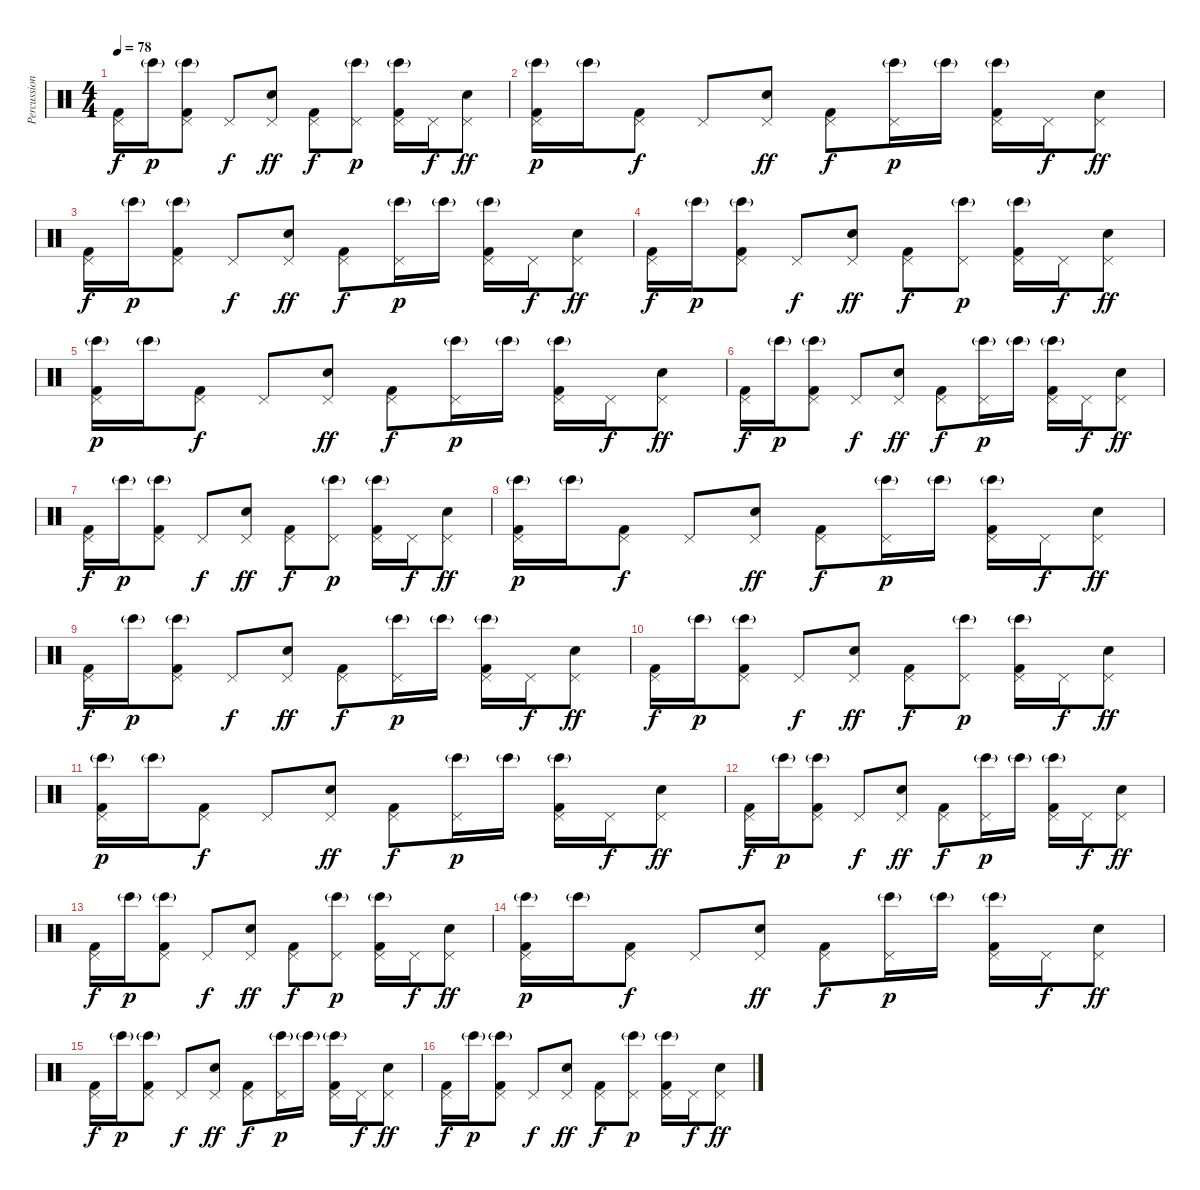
\track ("Percussions" "Percussion") {instrument percussion}
\staff {score}
\articulation defaults
\ts (4 4)
\tempo 78
\clef neutral
\ks c
("Pedal Hi-Hat (hit)" "Kick (hit) 2").16{dy f} "Bongo High (hit)"{g}.16{dy p} ("Pedal Hi-Hat (hit)" "Bongo High (hit)"{g} "Kick (hit) 2").8 "Pedal Hi-Hat (hit)".8{dy f} ("Pedal Hi-Hat (hit)" "Electric Snare (hit)").8{dy ff} ("Pedal Hi-Hat (hit)" "Kick (hit) 2").8{dy f} ("Pedal Hi-Hat (hit)" "Bongo High (hit)"{g}).8{dy p} ("Pedal Hi-Hat (hit)" "Bongo High (hit)"{g} "Kick (hit) 2").16 "Pedal Hi-Hat (hit)".16{dy f} ("Pedal Hi-Hat (hit)" "Electric Snare (hit)").8{dy ff} |
("Pedal Hi-Hat (hit)" "Bongo High (hit)"{g} "Kick (hit) 2").16{dy p} "Bongo High (hit)"{g}.16 ("Pedal Hi-Hat (hit)" "Kick (hit) 2").8{dy f} "Pedal Hi-Hat (hit)".8 ("Pedal Hi-Hat (hit)" "Electric Snare (hit)").8{dy ff} ("Pedal Hi-Hat (hit)" "Kick (hit) 2").8{dy f} ("Pedal Hi-Hat (hit)" "Bongo High (hit)"{g}).16{dy p} "Bongo High (hit)"{g}.16 ("Pedal Hi-Hat (hit)" "Bongo High (hit)"{g} "Kick (hit) 2").16 "Pedal Hi-Hat (hit)".16{dy f} ("Pedal Hi-Hat (hit)" "Electric Snare (hit)").8{dy ff} |
("Pedal Hi-Hat (hit)" "Kick (hit) 2").16{dy f} "Bongo High (hit)"{g}.16{dy p} ("Pedal Hi-Hat (hit)" "Bongo High (hit)"{g} "Kick (hit) 2").8 "Pedal Hi-Hat (hit)".8{dy f} ("Pedal Hi-Hat (hit)" "Electric Snare (hit)").8{dy ff} ("Pedal Hi-Hat (hit)" "Kick (hit) 2").8{dy f} ("Pedal Hi-Hat (hit)" "Bongo High (hit)"{g}).16{dy p} "Bongo High (hit)"{g}.16 ("Pedal Hi-Hat (hit)" "Bongo High (hit)"{g} "Kick (hit) 2").16 "Pedal Hi-Hat (hit)".16{dy f} ("Pedal Hi-Hat (hit)" "Electric Snare (hit)").8{dy ff} |
("Pedal Hi-Hat (hit)" "Kick (hit) 2").16{dy f} "Bongo High (hit)"{g}.16{dy p} ("Pedal Hi-Hat (hit)" "Bongo High (hit)"{g} "Kick (hit) 2").8 "Pedal Hi-Hat (hit)".8{dy f} ("Pedal Hi-Hat (hit)" "Electric Snare (hit)").8{dy ff} ("Pedal Hi-Hat (hit)" "Kick (hit) 2").8{dy f} ("Pedal Hi-Hat (hit)" "Bongo High (hit)"{g}).8{dy p} ("Pedal Hi-Hat (hit)" "Bongo High (hit)"{g} "Kick (hit) 2").16 "Pedal Hi-Hat (hit)".16{dy f} ("Pedal Hi-Hat (hit)" "Electric Snare (hit)").8{dy ff} |
("Pedal Hi-Hat (hit)" "Bongo High (hit)"{g} "Kick (hit) 2").16{dy p} "Bongo High (hit)"{g}.16 ("Pedal Hi-Hat (hit)" "Kick (hit) 2").8{dy f} "Pedal Hi-Hat (hit)".8 ("Pedal Hi-Hat (hit)" "Electric Snare (hit)").8{dy ff} ("Pedal Hi-Hat (hit)" "Kick (hit) 2").8{dy f} ("Pedal Hi-Hat (hit)" "Bongo High (hit)"{g}).16{dy p} "Bongo High (hit)"{g}.16 ("Pedal Hi-Hat (hit)" "Bongo High (hit)"{g} "Kick (hit) 2").16 "Pedal Hi-Hat (hit)".16{dy f} ("Pedal Hi-Hat (hit)" "Electric Snare (hit)").8{dy ff} |
("Pedal Hi-Hat (hit)" "Kick (hit) 2").16{dy f} "Bongo High (hit)"{g}.16{dy p} ("Pedal Hi-Hat (hit)" "Bongo High (hit)"{g} "Kick (hit) 2").8 "Pedal Hi-Hat (hit)".8{dy f} ("Pedal Hi-Hat (hit)" "Electric Snare (hit)").8{dy ff} ("Pedal Hi-Hat (hit)" "Kick (hit) 2").8{dy f} ("Pedal Hi-Hat (hit)" "Bongo High (hit)"{g}).16{dy p} "Bongo High (hit)"{g}.16 ("Pedal Hi-Hat (hit)" "Bongo High (hit)"{g} "Kick (hit) 2").16 "Pedal Hi-Hat (hit)".16{dy f} ("Pedal Hi-Hat (hit)" "Electric Snare (hit)").8{dy ff} |
("Pedal Hi-Hat (hit)" "Kick (hit) 2").16{dy f} "Bongo High (hit)"{g}.16{dy p} ("Pedal Hi-Hat (hit)" "Bongo High (hit)"{g} "Kick (hit) 2").8 "Pedal Hi-Hat (hit)".8{dy f} ("Pedal Hi-Hat (hit)" "Electric Snare (hit)").8{dy ff} ("Pedal Hi-Hat (hit)" "Kick (hit) 2").8{dy f} ("Pedal Hi-Hat (hit)" "Bongo High (hit)"{g}).8{dy p} ("Pedal Hi-Hat (hit)" "Bongo High (hit)"{g} "Kick (hit) 2").16 "Pedal Hi-Hat (hit)".16{dy f} ("Pedal Hi-Hat (hit)" "Electric Snare (hit)").8{dy ff} |
("Pedal Hi-Hat (hit)" "Bongo High (hit)"{g} "Kick (hit) 2").16{dy p} "Bongo High (hit)"{g}.16 ("Pedal Hi-Hat (hit)" "Kick (hit) 2").8{dy f} "Pedal Hi-Hat (hit)".8 ("Pedal Hi-Hat (hit)" "Electric Snare (hit)").8{dy ff} ("Pedal Hi-Hat (hit)" "Kick (hit) 2").8{dy f} ("Pedal Hi-Hat (hit)" "Bongo High (hit)"{g}).16{dy p} "Bongo High (hit)"{g}.16 ("Pedal Hi-Hat (hit)" "Bongo High (hit)"{g} "Kick (hit) 2").16 "Pedal Hi-Hat (hit)".16{dy f} ("Pedal Hi-Hat (hit)" "Electric Snare (hit)").8{dy ff} |
("Pedal Hi-Hat (hit)" "Kick (hit) 2").16{dy f} "Bongo High (hit)"{g}.16{dy p} ("Pedal Hi-Hat (hit)" "Bongo High (hit)"{g} "Kick (hit) 2").8 "Pedal Hi-Hat (hit)".8{dy f} ("Pedal Hi-Hat (hit)" "Electric Snare (hit)").8{dy ff} ("Pedal Hi-Hat (hit)" "Kick (hit) 2").8{dy f} ("Pedal Hi-Hat (hit)" "Bongo High (hit)"{g}).16{dy p} "Bongo High (hit)"{g}.16 ("Pedal Hi-Hat (hit)" "Bongo High (hit)"{g} "Kick (hit) 2").16 "Pedal Hi-Hat (hit)".16{dy f} ("Pedal Hi-Hat (hit)" "Electric Snare (hit)").8{dy ff} |
("Pedal Hi-Hat (hit)" "Kick (hit) 2").16{dy f} "Bongo High (hit)"{g}.16{dy p} ("Pedal Hi-Hat (hit)" "Bongo High (hit)"{g} "Kick (hit) 2").8 "Pedal Hi-Hat (hit)".8{dy f} ("Pedal Hi-Hat (hit)" "Electric Snare (hit)").8{dy ff} ("Pedal Hi-Hat (hit)" "Kick (hit) 2").8{dy f} ("Pedal Hi-Hat (hit)" "Bongo High (hit)"{g}).8{dy p} ("Pedal Hi-Hat (hit)" "Bongo High (hit)"{g} "Kick (hit) 2").16 "Pedal Hi-Hat (hit)".16{dy f} ("Pedal Hi-Hat (hit)" "Electric Snare (hit)").8{dy ff} |
("Pedal Hi-Hat (hit)" "Bongo High (hit)"{g} "Kick (hit) 2").16{dy p} "Bongo High (hit)"{g}.16 ("Pedal Hi-Hat (hit)" "Kick (hit) 2").8{dy f} "Pedal Hi-Hat (hit)".8 ("Pedal Hi-Hat (hit)" "Electric Snare (hit)").8{dy ff} ("Pedal Hi-Hat (hit)" "Kick (hit) 2").8{dy f} ("Pedal Hi-Hat (hit)" "Bongo High (hit)"{g}).16{dy p} "Bongo High (hit)"{g}.16 ("Pedal Hi-Hat (hit)" "Bongo High (hit)"{g} "Kick (hit) 2").16 "Pedal Hi-Hat (hit)".16{dy f} ("Pedal Hi-Hat (hit)" "Electric Snare (hit)").8{dy ff} |
("Pedal Hi-Hat (hit)" "Kick (hit) 2").16{dy f} "Bongo High (hit)"{g}.16{dy p} ("Pedal Hi-Hat (hit)" "Bongo High (hit)"{g} "Kick (hit) 2").8 "Pedal Hi-Hat (hit)".8{dy f} ("Pedal Hi-Hat (hit)" "Electric Snare (hit)").8{dy ff} ("Pedal Hi-Hat (hit)" "Kick (hit) 2").8{dy f} ("Pedal Hi-Hat (hit)" "Bongo High (hit)"{g}).16{dy p} "Bongo High (hit)"{g}.16 ("Pedal Hi-Hat (hit)" "Bongo High (hit)"{g} "Kick (hit) 2").16 "Pedal Hi-Hat (hit)".16{dy f} ("Pedal Hi-Hat (hit)" "Electric Snare (hit)").8{dy ff} |
("Pedal Hi-Hat (hit)" "Kick (hit) 2").16{dy f} "Bongo High (hit)"{g}.16{dy p} ("Pedal Hi-Hat (hit)" "Bongo High (hit)"{g} "Kick (hit) 2").8 "Pedal Hi-Hat (hit)".8{dy f} ("Pedal Hi-Hat (hit)" "Electric Snare (hit)").8{dy ff} ("Pedal Hi-Hat (hit)" "Kick (hit) 2").8{dy f} ("Pedal Hi-Hat (hit)" "Bongo High (hit)"{g}).8{dy p} ("Pedal Hi-Hat (hit)" "Bongo High (hit)"{g} "Kick (hit) 2").16 "Pedal Hi-Hat (hit)".16{dy f} ("Pedal Hi-Hat (hit)" "Electric Snare (hit)").8{dy ff} |
("Pedal Hi-Hat (hit)" "Bongo High (hit)"{g} "Kick (hit) 2").16{dy p} "Bongo High (hit)"{g}.16 ("Pedal Hi-Hat (hit)" "Kick (hit) 2").8{dy f} "Pedal Hi-Hat (hit)".8 ("Pedal Hi-Hat (hit)" "Electric Snare (hit)").8{dy ff} ("Pedal Hi-Hat (hit)" "Kick (hit) 2").8{dy f} ("Pedal Hi-Hat (hit)" "Bongo High (hit)"{g}).16{dy p} "Bongo High (hit)"{g}.16 ("Pedal Hi-Hat (hit)" "Bongo High (hit)"{g} "Kick (hit) 2").16 "Pedal Hi-Hat (hit)".16{dy f} ("Pedal Hi-Hat (hit)" "Electric Snare (hit)").8{dy ff} |
("Pedal Hi-Hat (hit)" "Kick (hit) 2").16{dy f} "Bongo High (hit)"{g}.16{dy p} ("Pedal Hi-Hat (hit)" "Bongo High (hit)"{g} "Kick (hit) 2").8 "Pedal Hi-Hat (hit)".8{dy f} ("Pedal Hi-Hat (hit)" "Electric Snare (hit)").8{dy ff} ("Pedal Hi-Hat (hit)" "Kick (hit) 2").8{dy f} ("Pedal Hi-Hat (hit)" "Bongo High (hit)"{g}).16{dy p} "Bongo High (hit)"{g}.16 ("Pedal Hi-Hat (hit)" "Bongo High (hit)"{g} "Kick (hit) 2").16 "Pedal Hi-Hat (hit)".16{dy f} ("Pedal Hi-Hat (hit)" "Electric Snare (hit)").8{dy ff} |
("Pedal Hi-Hat (hit)" "Kick (hit) 2").16{dy f} "Bongo High (hit)"{g}.16{dy p} ("Pedal Hi-Hat (hit)" "Bongo High (hit)"{g} "Kick (hit) 2").8 "Pedal Hi-Hat (hit)".8{dy f} ("Pedal Hi-Hat (hit)" "Electric Snare (hit)").8{dy ff} ("Pedal Hi-Hat (hit)" "Kick (hit) 2").8{dy f} ("Pedal Hi-Hat (hit)" "Bongo High (hit)"{g}).8{dy p} ("Pedal Hi-Hat (hit)" "Bongo High (hit)"{g} "Kick (hit) 2").16 "Pedal Hi-Hat (hit)".16{dy f} ("Pedal Hi-Hat (hit)" "Electric Snare (hit)").8{dy ff}
